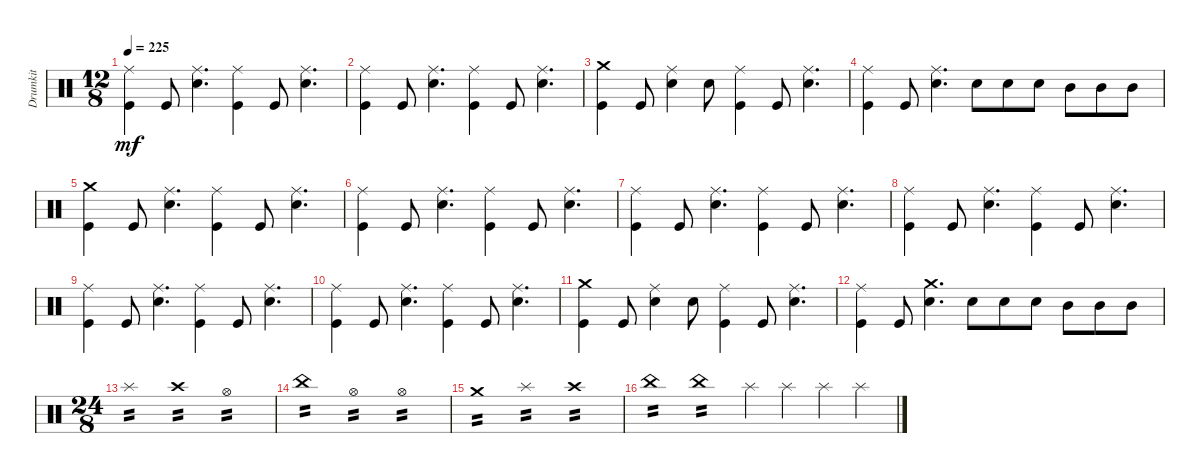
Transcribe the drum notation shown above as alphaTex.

\track ("Drumkit" "Drumkit") {instrument percussion}
\staff {score}
\articulation defaults
\ts (12 8)
\tempo 225
\clef neutral
\ks c
("Kick (hit)" "Ride (middle)").4{dy mf} "Kick (hit)".8 ("Snare (hit) 2" "Ride (middle)").4{d} ("Kick (hit)" "Ride (middle)").4 "Kick (hit)".8 ("Snare (hit) 2" "Ride (middle)").4{d} |
("Kick (hit)" "Ride (middle)").4 "Kick (hit)".8 ("Snare (hit) 2" "Ride (middle)").4{d} ("Kick (hit)" "Ride (middle)").4 "Kick (hit)".8 ("Snare (hit) 2" "Ride (middle)").4{d} |
("Kick (hit)" "Crash medium (hit)").4 "Kick (hit)".8 ("Snare (hit) 2" "Ride (middle)").4 "Snare (hit) 2".8 ("Kick (hit)" "Ride (middle)").4 "Kick (hit)".8 ("Snare (hit) 2" "Ride (middle)").4{d} |
("Kick (hit)" "Ride (middle)").4 "Kick (hit)".8 ("Snare (hit) 2" "Ride (middle)").4{d} "Snare (hit) 2".8 "Snare (hit) 2".8 "Snare (hit) 2".8 "Mid Tom (hit)".8 "Mid Tom (hit)".8 "Mid Tom (hit)".8 |
("Kick (hit)" "Crash medium (hit)").4 "Kick (hit)".8 ("Snare (hit) 2" "Ride (middle)").4{d} ("Kick (hit)" "Ride (middle)").4 "Kick (hit)".8 ("Snare (hit) 2" "Ride (middle)").4{d} |
("Kick (hit)" "Ride (middle)").4 "Kick (hit)".8 ("Snare (hit) 2" "Ride (middle)").4{d} ("Kick (hit)" "Ride (middle)").4 "Kick (hit)".8 ("Snare (hit) 2" "Ride (middle)").4{d} |
("Kick (hit)" "Ride (middle)").4 "Kick (hit)".8 ("Snare (hit) 2" "Ride (middle)").4{d} ("Kick (hit)" "Ride (middle)").4 "Kick (hit)".8 ("Snare (hit) 2" "Ride (middle)").4{d} |
("Kick (hit)" "Ride (middle)").4 "Kick (hit)".8 ("Snare (hit) 2" "Ride (middle)").4{d} ("Kick (hit)" "Ride (middle)").4 "Kick (hit)".8 ("Snare (hit) 2" "Ride (middle)").4{d} |
("Kick (hit)" "Ride (middle)").4 "Kick (hit)".8 ("Snare (hit) 2" "Ride (middle)").4{d} ("Kick (hit)" "Ride (middle)").4 "Kick (hit)".8 ("Snare (hit) 2" "Ride (middle)").4{d} |
("Kick (hit)" "Ride (middle)").4 "Kick (hit)".8 ("Snare (hit) 2" "Ride (middle)").4{d} ("Kick (hit)" "Ride (middle)").4 "Kick (hit)".8 ("Snare (hit) 2" "Ride (middle)").4{d} |
("Kick (hit)" "Crash medium (hit)").4 "Kick (hit)".8 ("Snare (hit) 2" "Ride (middle)").4 "Snare (hit) 2".8 ("Kick (hit)" "Ride (middle)").4 "Kick (hit)".8 ("Snare (hit) 2" "Ride (middle)").4{d} |
("Kick (hit)" "Ride (middle)").4 "Kick (hit)".8 ("Snare (hit) 2" "Crash medium (hit)").4{d} "Snare (hit) 2".8 "Snare (hit) 2".8 "Snare (hit) 2".8 "Mid Tom (hit)".8 "Mid Tom (hit)".8 "Mid Tom (hit)".8 |
\ts (24 8)
"Splash (hit)".1{tp 2} "Crash high (hit)".1{tp 2} "Hi-Hat (open)".1{tp 2} |
"China (hit)".1{tp 2} "Hi-Hat (open)".1{tp 2} "Hi-Hat (open)".1{tp 2} |
"Crash medium (hit)".1{tp 2} "Splash (hit)".1{tp 2} "Crash high (hit)".1{tp 2} |
"China (hit)".1{tp 2} "China (hit)".1{tp 2} "Splash (hit)".4 "Splash (hit)".4 "Splash (hit)".4 "Splash (hit)".4
